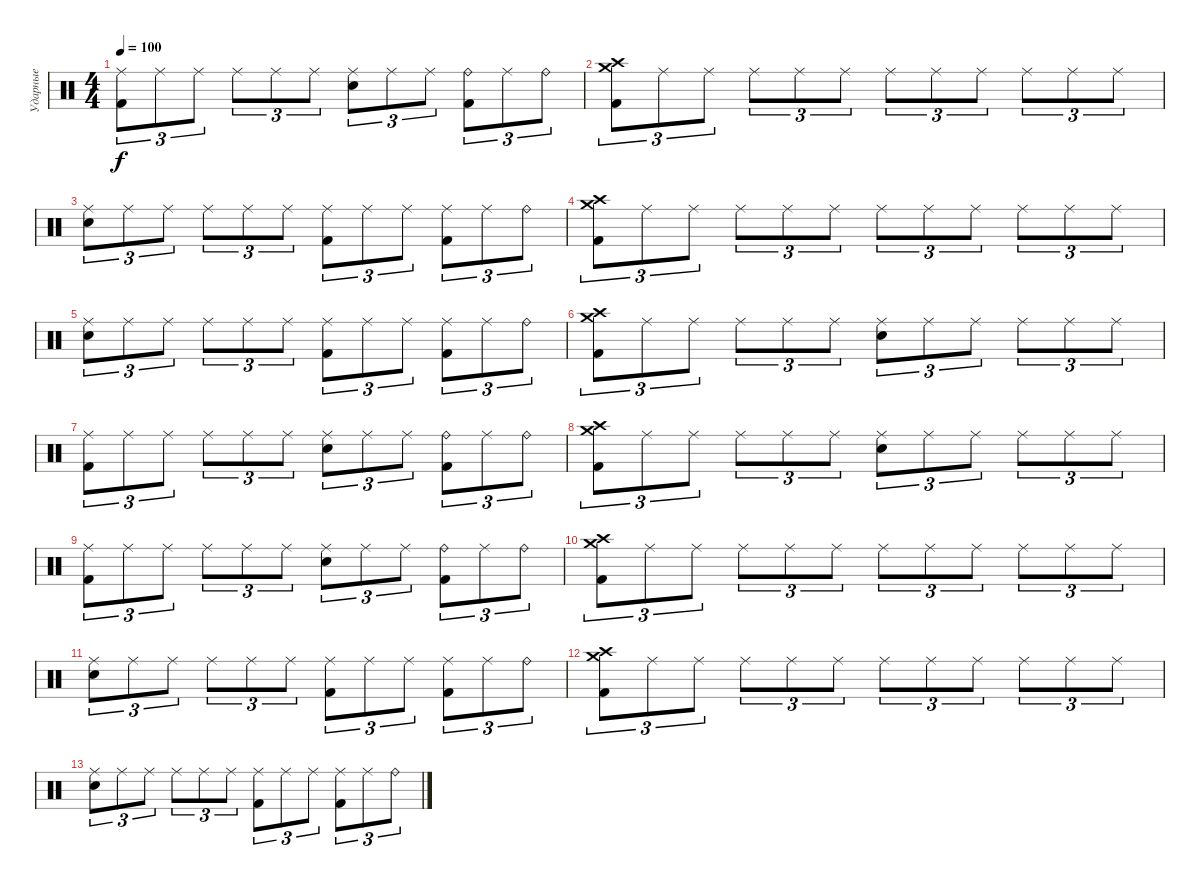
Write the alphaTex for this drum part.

\track ("Ударные" "Ударные") {instrument percussion}
\staff {score}
\articulation defaults
\ts (4 4)
\tempo 100
\clef neutral
\ks c
("Ride (middle)" "Kick (hit) 2").8{tu (3 2) dy f} "Ride (middle)".8{tu (3 2)} "Ride (middle)".8{tu (3 2)} "Ride (middle)".8{tu (3 2)} "Ride (middle)".8{tu (3 2)} "Ride (middle)".8{tu (3 2)} ("Ride (middle)" "Electric Snare (hit)").8{tu (3 2)} "Ride (middle)".8{tu (3 2)} "Ride (middle)".8{tu (3 2)} ("Ride (bell)" "Kick (hit) 2").8{tu (3 2)} "Ride (middle)".8{tu (3 2)} "Ride (bell)".8{tu (3 2)} |
("Crash high (hit)" "Crash medium (hit)" "Kick (hit) 2").8{tu (3 2)} "Ride (middle)".8{tu (3 2)} "Ride (middle)".8{tu (3 2)} "Ride (middle)".8{tu (3 2)} "Ride (middle)".8{tu (3 2)} "Ride (middle)".8{tu (3 2)} "Ride (middle)".8{tu (3 2)} "Ride (middle)".8{tu (3 2)} "Ride (middle)".8{tu (3 2)} "Ride (middle)".8{tu (3 2)} "Ride (middle)".8{tu (3 2)} "Ride (middle)".8{tu (3 2)} |
("Ride (middle)" "Electric Snare (hit)").8{tu (3 2)} "Ride (middle)".8{tu (3 2)} "Ride (middle)".8{tu (3 2)} "Ride (middle)".8{tu (3 2)} "Ride (middle)".8{tu (3 2)} "Ride (middle)".8{tu (3 2)} ("Ride (middle)" "Kick (hit) 2").8{tu (3 2)} "Ride (middle)".8{tu (3 2)} "Ride (middle)".8{tu (3 2)} ("Ride (middle)" "Kick (hit) 2").8{tu (3 2)} "Ride (middle)".8{tu (3 2)} "Ride (bell)".8{tu (3 2)} |
("Crash high (hit)" "Crash medium (hit)" "Kick (hit) 2").8{tu (3 2)} "Ride (middle)".8{tu (3 2)} "Ride (middle)".8{tu (3 2)} "Ride (middle)".8{tu (3 2)} "Ride (middle)".8{tu (3 2)} "Ride (middle)".8{tu (3 2)} "Ride (middle)".8{tu (3 2)} "Ride (middle)".8{tu (3 2)} "Ride (middle)".8{tu (3 2)} "Ride (middle)".8{tu (3 2)} "Ride (middle)".8{tu (3 2)} "Ride (middle)".8{tu (3 2)} |
("Ride (middle)" "Electric Snare (hit)").8{tu (3 2)} "Ride (middle)".8{tu (3 2)} "Ride (middle)".8{tu (3 2)} "Ride (middle)".8{tu (3 2)} "Ride (middle)".8{tu (3 2)} "Ride (middle)".8{tu (3 2)} ("Ride (middle)" "Kick (hit) 2").8{tu (3 2)} "Ride (middle)".8{tu (3 2)} "Ride (middle)".8{tu (3 2)} ("Ride (middle)" "Kick (hit) 2").8{tu (3 2)} "Ride (middle)".8{tu (3 2)} "Ride (bell)".8{tu (3 2)} |
("Crash high (hit)" "Crash medium (hit)" "Kick (hit) 2").8{tu (3 2)} "Ride (middle)".8{tu (3 2)} "Ride (middle)".8{tu (3 2)} "Ride (middle)".8{tu (3 2)} "Ride (middle)".8{tu (3 2)} "Ride (middle)".8{tu (3 2)} ("Ride (middle)" "Electric Snare (hit)").8{tu (3 2)} "Ride (middle)".8{tu (3 2)} "Ride (middle)".8{tu (3 2)} "Ride (middle)".8{tu (3 2)} "Ride (middle)".8{tu (3 2)} "Ride (middle)".8{tu (3 2)} |
("Ride (middle)" "Kick (hit) 2").8{tu (3 2)} "Ride (middle)".8{tu (3 2)} "Ride (middle)".8{tu (3 2)} "Ride (middle)".8{tu (3 2)} "Ride (middle)".8{tu (3 2)} "Ride (middle)".8{tu (3 2)} ("Ride (middle)" "Electric Snare (hit)").8{tu (3 2)} "Ride (middle)".8{tu (3 2)} "Ride (middle)".8{tu (3 2)} ("Ride (bell)" "Kick (hit) 2").8{tu (3 2)} "Ride (middle)".8{tu (3 2)} "Ride (bell)".8{tu (3 2)} |
("Crash high (hit)" "Crash medium (hit)" "Kick (hit) 2").8{tu (3 2)} "Ride (middle)".8{tu (3 2)} "Ride (middle)".8{tu (3 2)} "Ride (middle)".8{tu (3 2)} "Ride (middle)".8{tu (3 2)} "Ride (middle)".8{tu (3 2)} ("Ride (middle)" "Electric Snare (hit)").8{tu (3 2)} "Ride (middle)".8{tu (3 2)} "Ride (middle)".8{tu (3 2)} "Ride (middle)".8{tu (3 2)} "Ride (middle)".8{tu (3 2)} "Ride (middle)".8{tu (3 2)} |
("Ride (middle)" "Kick (hit) 2").8{tu (3 2)} "Ride (middle)".8{tu (3 2)} "Ride (middle)".8{tu (3 2)} "Ride (middle)".8{tu (3 2)} "Ride (middle)".8{tu (3 2)} "Ride (middle)".8{tu (3 2)} ("Ride (middle)" "Electric Snare (hit)").8{tu (3 2)} "Ride (middle)".8{tu (3 2)} "Ride (middle)".8{tu (3 2)} ("Ride (bell)" "Kick (hit) 2").8{tu (3 2)} "Ride (middle)".8{tu (3 2)} "Ride (bell)".8{tu (3 2)} |
("Crash high (hit)" "Crash medium (hit)" "Kick (hit) 2").8{tu (3 2)} "Ride (middle)".8{tu (3 2)} "Ride (middle)".8{tu (3 2)} "Ride (middle)".8{tu (3 2)} "Ride (middle)".8{tu (3 2)} "Ride (middle)".8{tu (3 2)} "Ride (middle)".8{tu (3 2)} "Ride (middle)".8{tu (3 2)} "Ride (middle)".8{tu (3 2)} "Ride (middle)".8{tu (3 2)} "Ride (middle)".8{tu (3 2)} "Ride (middle)".8{tu (3 2)} |
("Ride (middle)" "Electric Snare (hit)").8{tu (3 2)} "Ride (middle)".8{tu (3 2)} "Ride (middle)".8{tu (3 2)} "Ride (middle)".8{tu (3 2)} "Ride (middle)".8{tu (3 2)} "Ride (middle)".8{tu (3 2)} ("Ride (middle)" "Kick (hit) 2").8{tu (3 2)} "Ride (middle)".8{tu (3 2)} "Ride (middle)".8{tu (3 2)} ("Ride (middle)" "Kick (hit) 2").8{tu (3 2)} "Ride (middle)".8{tu (3 2)} "Ride (bell)".8{tu (3 2)} |
("Crash high (hit)" "Crash medium (hit)" "Kick (hit) 2").8{tu (3 2)} "Ride (middle)".8{tu (3 2)} "Ride (middle)".8{tu (3 2)} "Ride (middle)".8{tu (3 2)} "Ride (middle)".8{tu (3 2)} "Ride (middle)".8{tu (3 2)} "Ride (middle)".8{tu (3 2)} "Ride (middle)".8{tu (3 2)} "Ride (middle)".8{tu (3 2)} "Ride (middle)".8{tu (3 2)} "Ride (middle)".8{tu (3 2)} "Ride (middle)".8{tu (3 2)} |
("Ride (middle)" "Electric Snare (hit)").8{tu (3 2)} "Ride (middle)".8{tu (3 2)} "Ride (middle)".8{tu (3 2)} "Ride (middle)".8{tu (3 2)} "Ride (middle)".8{tu (3 2)} "Ride (middle)".8{tu (3 2)} ("Ride (middle)" "Kick (hit) 2").8{tu (3 2)} "Ride (middle)".8{tu (3 2)} "Ride (middle)".8{tu (3 2)} ("Ride (middle)" "Kick (hit) 2").8{tu (3 2)} "Ride (middle)".8{tu (3 2)} "Ride (bell)".8{tu (3 2)}
